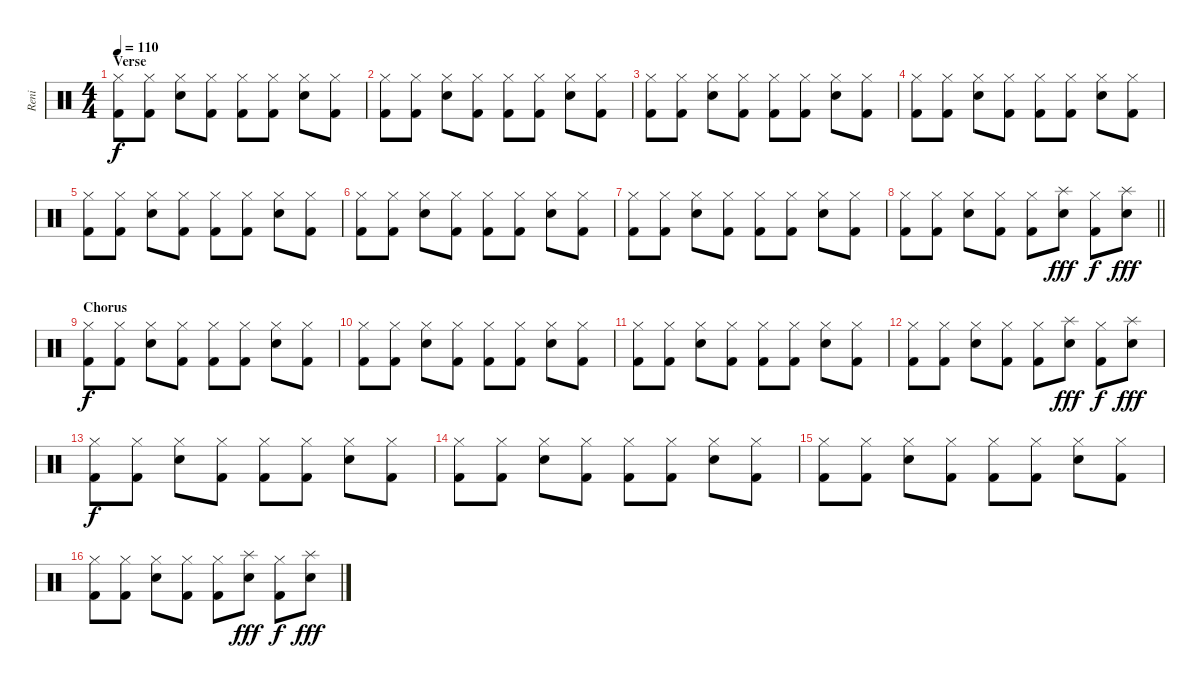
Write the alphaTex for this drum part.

\track ("Reni" "Reni") {instrument percussion}
\staff {score}
\articulation defaults
\ts (4 4)
\section ("" "Verse")
\tempo 110
\clef neutral
\ks c
("Hi-Hat (closed)" "Kick (hit) 2").8{dy f} ("Hi-Hat (closed)" "Kick (hit) 2").8 ("Hi-Hat (closed)" "Electric Snare (hit)").8 ("Hi-Hat (closed)" "Kick (hit) 2").8 ("Hi-Hat (closed)" "Kick (hit) 2").8 ("Hi-Hat (closed)" "Kick (hit) 2").8 ("Hi-Hat (closed)" "Electric Snare (hit)").8 ("Hi-Hat (closed)" "Kick (hit) 2").8 |
("Hi-Hat (closed)" "Kick (hit) 2").8 ("Hi-Hat (closed)" "Kick (hit) 2").8 ("Hi-Hat (closed)" "Electric Snare (hit)").8 ("Hi-Hat (closed)" "Kick (hit) 2").8 ("Hi-Hat (closed)" "Kick (hit) 2").8 ("Hi-Hat (closed)" "Kick (hit) 2").8 ("Hi-Hat (closed)" "Electric Snare (hit)").8 ("Hi-Hat (closed)" "Kick (hit) 2").8 |
("Hi-Hat (closed)" "Kick (hit) 2").8 ("Hi-Hat (closed)" "Kick (hit) 2").8 ("Hi-Hat (closed)" "Electric Snare (hit)").8 ("Hi-Hat (closed)" "Kick (hit) 2").8 ("Hi-Hat (closed)" "Kick (hit) 2").8 ("Hi-Hat (closed)" "Kick (hit) 2").8 ("Hi-Hat (closed)" "Electric Snare (hit)").8 ("Hi-Hat (closed)" "Kick (hit) 2").8 |
("Hi-Hat (closed)" "Kick (hit) 2").8 ("Hi-Hat (closed)" "Kick (hit) 2").8 ("Hi-Hat (closed)" "Electric Snare (hit)").8 ("Hi-Hat (closed)" "Kick (hit) 2").8 ("Hi-Hat (closed)" "Kick (hit) 2").8 ("Hi-Hat (closed)" "Kick (hit) 2").8 ("Hi-Hat (closed)" "Electric Snare (hit)").8 ("Hi-Hat (closed)" "Kick (hit) 2").8 |
("Hi-Hat (closed)" "Kick (hit) 2").8 ("Hi-Hat (closed)" "Kick (hit) 2").8 ("Hi-Hat (closed)" "Electric Snare (hit)").8 ("Hi-Hat (closed)" "Kick (hit) 2").8 ("Hi-Hat (closed)" "Kick (hit) 2").8 ("Hi-Hat (closed)" "Kick (hit) 2").8 ("Hi-Hat (closed)" "Electric Snare (hit)").8 ("Hi-Hat (closed)" "Kick (hit) 2").8 |
("Hi-Hat (closed)" "Kick (hit) 2").8 ("Hi-Hat (closed)" "Kick (hit) 2").8 ("Hi-Hat (closed)" "Electric Snare (hit)").8 ("Hi-Hat (closed)" "Kick (hit) 2").8 ("Hi-Hat (closed)" "Kick (hit) 2").8 ("Hi-Hat (closed)" "Kick (hit) 2").8 ("Hi-Hat (closed)" "Electric Snare (hit)").8 ("Hi-Hat (closed)" "Kick (hit) 2").8 |
("Hi-Hat (closed)" "Kick (hit) 2").8 ("Hi-Hat (closed)" "Kick (hit) 2").8 ("Hi-Hat (closed)" "Electric Snare (hit)").8 ("Hi-Hat (closed)" "Kick (hit) 2").8 ("Hi-Hat (closed)" "Kick (hit) 2").8 ("Hi-Hat (closed)" "Kick (hit) 2").8 ("Hi-Hat (closed)" "Electric Snare (hit)").8 ("Hi-Hat (closed)" "Kick (hit) 2").8 |
\barLineRight lightlight
("Hi-Hat (closed)" "Kick (hit) 2").8 ("Hi-Hat (closed)" "Kick (hit) 2").8 ("Hi-Hat (closed)" "Electric Snare (hit)").8 ("Hi-Hat (closed)" "Kick (hit) 2").8 ("Hi-Hat (closed)" "Kick (hit) 2").8 ("Splash (hit)" "Electric Snare (hit)").8{dy fff} ("Hi-Hat (closed)" "Kick (hit) 2").8{dy f} ("Splash (hit)" "Electric Snare (hit)").8{dy fff} |
\section ("" "Chorus")
("Hi-Hat (closed)" "Kick (hit) 2").8{dy f} ("Hi-Hat (closed)" "Kick (hit) 2").8 ("Hi-Hat (closed)" "Electric Snare (hit)").8 ("Hi-Hat (closed)" "Kick (hit) 2").8 ("Hi-Hat (closed)" "Kick (hit) 2").8 ("Hi-Hat (closed)" "Kick (hit) 2").8 ("Hi-Hat (closed)" "Electric Snare (hit)").8 ("Hi-Hat (closed)" "Kick (hit) 2").8 |
("Hi-Hat (closed)" "Kick (hit) 2").8 ("Hi-Hat (closed)" "Kick (hit) 2").8 ("Hi-Hat (closed)" "Electric Snare (hit)").8 ("Hi-Hat (closed)" "Kick (hit) 2").8 ("Hi-Hat (closed)" "Kick (hit) 2").8 ("Hi-Hat (closed)" "Kick (hit) 2").8 ("Hi-Hat (closed)" "Electric Snare (hit)").8 ("Hi-Hat (closed)" "Kick (hit) 2").8 |
("Hi-Hat (closed)" "Kick (hit) 2").8 ("Hi-Hat (closed)" "Kick (hit) 2").8 ("Hi-Hat (closed)" "Electric Snare (hit)").8 ("Hi-Hat (closed)" "Kick (hit) 2").8 ("Hi-Hat (closed)" "Kick (hit) 2").8 ("Hi-Hat (closed)" "Kick (hit) 2").8 ("Hi-Hat (closed)" "Electric Snare (hit)").8 ("Hi-Hat (closed)" "Kick (hit) 2").8 |
("Hi-Hat (closed)" "Kick (hit) 2").8 ("Hi-Hat (closed)" "Kick (hit) 2").8 ("Hi-Hat (closed)" "Electric Snare (hit)").8 ("Hi-Hat (closed)" "Kick (hit) 2").8 ("Hi-Hat (closed)" "Kick (hit) 2").8 ("Splash (hit)" "Electric Snare (hit)").8{dy fff} ("Hi-Hat (closed)" "Kick (hit) 2").8{dy f} ("Splash (hit)" "Electric Snare (hit)").8{dy fff} |
("Hi-Hat (closed)" "Kick (hit) 2").8{dy f} ("Hi-Hat (closed)" "Kick (hit) 2").8 ("Hi-Hat (closed)" "Electric Snare (hit)").8 ("Hi-Hat (closed)" "Kick (hit) 2").8 ("Hi-Hat (closed)" "Kick (hit) 2").8 ("Hi-Hat (closed)" "Kick (hit) 2").8 ("Hi-Hat (closed)" "Electric Snare (hit)").8 ("Hi-Hat (closed)" "Kick (hit) 2").8 |
("Hi-Hat (closed)" "Kick (hit) 2").8 ("Hi-Hat (closed)" "Kick (hit) 2").8 ("Hi-Hat (closed)" "Electric Snare (hit)").8 ("Hi-Hat (closed)" "Kick (hit) 2").8 ("Hi-Hat (closed)" "Kick (hit) 2").8 ("Hi-Hat (closed)" "Kick (hit) 2").8 ("Hi-Hat (closed)" "Electric Snare (hit)").8 ("Hi-Hat (closed)" "Kick (hit) 2").8 |
("Hi-Hat (closed)" "Kick (hit) 2").8 ("Hi-Hat (closed)" "Kick (hit) 2").8 ("Hi-Hat (closed)" "Electric Snare (hit)").8 ("Hi-Hat (closed)" "Kick (hit) 2").8 ("Hi-Hat (closed)" "Kick (hit) 2").8 ("Hi-Hat (closed)" "Kick (hit) 2").8 ("Hi-Hat (closed)" "Electric Snare (hit)").8 ("Hi-Hat (closed)" "Kick (hit) 2").8 |
("Hi-Hat (closed)" "Kick (hit) 2").8 ("Hi-Hat (closed)" "Kick (hit) 2").8 ("Hi-Hat (closed)" "Electric Snare (hit)").8 ("Hi-Hat (closed)" "Kick (hit) 2").8 ("Hi-Hat (closed)" "Kick (hit) 2").8 ("Splash (hit)" "Electric Snare (hit)").8{dy fff} ("Hi-Hat (closed)" "Kick (hit) 2").8{dy f} ("Splash (hit)" "Electric Snare (hit)").8{dy fff}
